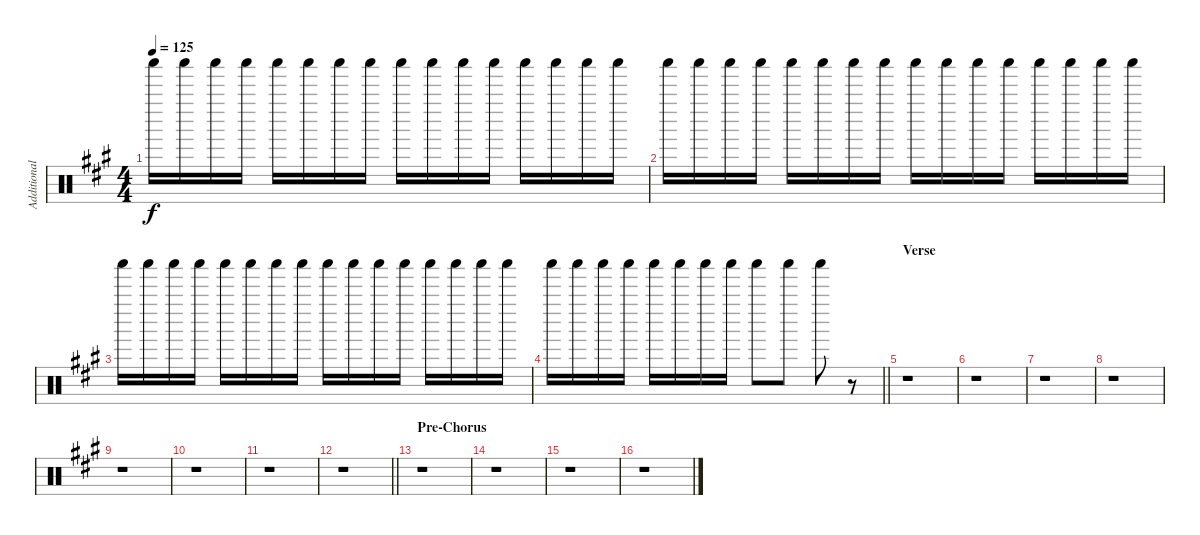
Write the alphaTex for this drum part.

\track ("Additional Percussion I" "Additional") {instrument percussion}
\staff {score}
\articulation defaults
\ts (4 4)
\tempo 125
\clef neutral
\ks a "Shaker (hit)".16{dy f} "Shaker (hit)".16 "Shaker (hit)".16 "Shaker (hit)".16 "Shaker (hit)".16 "Shaker (hit)".16 "Shaker (hit)".16 "Shaker (hit)".16 "Shaker (hit)".16 "Shaker (hit)".16 "Shaker (hit)".16 "Shaker (hit)".16 "Shaker (hit)".16 "Shaker (hit)".16 "Shaker (hit)".16 "Shaker (hit)".16
|
"Shaker (hit)".16 "Shaker (hit)".16 "Shaker (hit)".16 "Shaker (hit)".16 "Shaker (hit)".16 "Shaker (hit)".16 "Shaker (hit)".16 "Shaker (hit)".16 "Shaker (hit)".16 "Shaker (hit)".16 "Shaker (hit)".16 "Shaker (hit)".16 "Shaker (hit)".16 "Shaker (hit)".16 "Shaker (hit)".16 "Shaker (hit)".16 |
"Shaker (hit)".16 "Shaker (hit)".16 "Shaker (hit)".16 "Shaker (hit)".16 "Shaker (hit)".16 "Shaker (hit)".16 "Shaker (hit)".16 "Shaker (hit)".16 "Shaker (hit)".16 "Shaker (hit)".16 "Shaker (hit)".16 "Shaker (hit)".16 "Shaker (hit)".16 "Shaker (hit)".16 "Shaker (hit)".16 "Shaker (hit)".16 |
\barLineRight lightlight "Shaker (hit)".16 "Shaker (hit)".16 "Shaker (hit)".16 "Shaker (hit)".16 "Shaker (hit)".16 "Shaker (hit)".16 "Shaker (hit)".16 "Shaker (hit)".16 "Shaker (hit)".8 "Shaker (hit)".8 "Shaker (hit)".8
r.8 |
\section ("" "Verse")
r.1 |
r.1 |
r.1 |
r.1 |
r.1 |
r.1 |
r.1 |
\barLineRight lightlight
r.1 |
\section ("" "Pre-Chorus")
r.1 |
r.1 |
r.1 |
r.1
